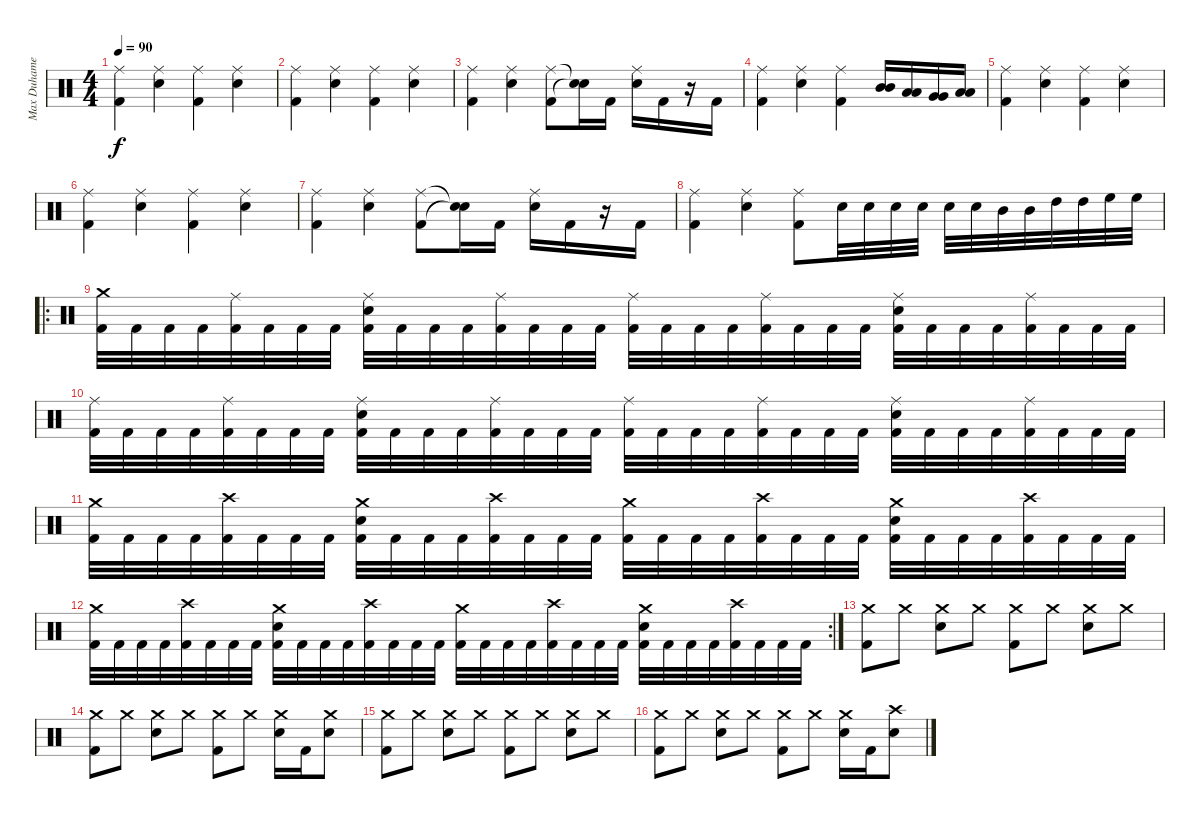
\track ("Max Duhamel (Drums)" "Max Duhame") {instrument percussion}
\staff {score}
\articulation defaults
\ts (4 4)
\tempo 90
\clef neutral
\ks c
("Ride (middle)" "Kick (hit) 2").4{dy f} ("Ride (middle)" "Snare (hit) 2").4 ("Ride (middle)" "Kick (hit) 2").4 ("Ride (middle)" "Snare (hit) 2").4 |
("Ride (middle)" "Kick (hit) 2").4 ("Ride (middle)" "Snare (hit) 2").4 ("Ride (middle)" "Kick (hit) 2").4 ("Ride (middle)" "Snare (hit) 2").4 |
("Ride (middle)" "Kick (hit) 2").4 ("Ride (middle)" "Snare (hit) 2").4 ("Ride (middle)" "Kick (hit) 2").8 ("Snare (hit)"{t} "Snare (hit)"{t}).16 "Kick (hit) 2".16 ("Ride (middle)" "Snare (hit) 2").16 "Kick (hit) 2".16 r.16 "Kick (hit) 2".16 |
("Ride (middle)" "Kick (hit) 2").4 ("Ride (middle)" "Snare (hit) 2").4 ("Ride (middle)" "Kick (hit) 2").4 ("Mid Tom (hit)" "Mid Tom (hit)").16{bd 480} ("Low Tom (hit)" "Low Tom (hit)").16{bd 480} ("Very Low Tom (hit)" "Very Low Tom (hit)").16{bd 480} ("Low Tom (hit)" "Low Tom (hit)").16{bd 480} |
("Ride (middle)" "Kick (hit) 2").4 ("Ride (middle)" "Snare (hit) 2").4 ("Ride (middle)" "Kick (hit) 2").4 ("Ride (middle)" "Snare (hit) 2").4 |
("Ride (middle)" "Kick (hit) 2").4 ("Ride (middle)" "Snare (hit) 2").4 ("Ride (middle)" "Kick (hit) 2").4 ("Ride (middle)" "Snare (hit) 2").4 |
("Ride (middle)" "Kick (hit) 2").4 ("Ride (middle)" "Snare (hit) 2").4 ("Ride (middle)" "Kick (hit) 2").8 ("Snare (hit)"{t} "Snare (hit)"{t}).16 "Kick (hit) 2".16 ("Ride (middle)" "Snare (hit) 2").16 "Kick (hit) 2".16 r.16 "Kick (hit) 2".16 |
("Ride (middle)" "Kick (hit) 2").4 ("Ride (middle)" "Snare (hit) 2").4 ("Ride (middle)" "Kick (hit) 2").8 "Snare (hit) 2".32 "Snare (hit) 2".32 "Snare (hit) 2".32 "Snare (hit) 2".32 "Snare (hit) 2".32 "Snare (hit) 2".32 "Mid Tom (hit)".32 "Mid Tom (hit)".32 "High Tom (hit)".32 "High Tom (hit)".32 "High Floor Tom (hit)".32 "High Floor Tom (hit)".32 |
\ro
("Crash medium (hit)" "Kick (hit) 2").32 "Kick (hit) 2".32 "Kick (hit) 2".32 "Kick (hit) 2".32 ("Ride (middle)" "Kick (hit) 2").32 "Kick (hit) 2".32 "Kick (hit) 2".32 "Kick (hit) 2".32 ("Ride (middle)" "Snare (hit) 2" "Kick (hit) 2").32 "Kick (hit) 2".32 "Kick (hit) 2".32 "Kick (hit) 2".32 ("Ride (middle)" "Kick (hit) 2").32 "Kick (hit) 2".32 "Kick (hit) 2".32 "Kick (hit) 2".32 ("Ride (middle)" "Kick (hit) 2").32 "Kick (hit) 2".32 "Kick (hit) 2".32 "Kick (hit) 2".32 ("Ride (middle)" "Kick (hit) 2").32 "Kick (hit) 2".32 "Kick (hit) 2".32 "Kick (hit) 2".32 ("Ride (middle)" "Snare (hit) 2" "Kick (hit) 2").32 "Kick (hit) 2".32 "Kick (hit) 2".32 "Kick (hit) 2".32 ("Ride (middle)" "Kick (hit) 2").32 "Kick (hit) 2".32 "Kick (hit) 2".32 "Kick (hit) 2".32 |
("Ride (middle)" "Kick (hit) 2").32 "Kick (hit) 2".32 "Kick (hit) 2".32 "Kick (hit) 2".32 ("Ride (middle)" "Kick (hit) 2").32 "Kick (hit) 2".32 "Kick (hit) 2".32 "Kick (hit) 2".32 ("Ride (middle)" "Snare (hit) 2" "Kick (hit) 2").32 "Kick (hit) 2".32 "Kick (hit) 2".32 "Kick (hit) 2".32 ("Ride (middle)" "Kick (hit) 2").32 "Kick (hit) 2".32 "Kick (hit) 2".32 "Kick (hit) 2".32 ("Ride (middle)" "Kick (hit) 2").32 "Kick (hit) 2".32 "Kick (hit) 2".32 "Kick (hit) 2".32 ("Ride (middle)" "Kick (hit) 2").32 "Kick (hit) 2".32 "Kick (hit) 2".32 "Kick (hit) 2".32 ("Ride (middle)" "Snare (hit) 2" "Kick (hit) 2").32 "Kick (hit) 2".32 "Kick (hit) 2".32 "Kick (hit) 2".32 ("Ride (middle)" "Kick (hit) 2").32 "Kick (hit) 2".32 "Kick (hit) 2".32 "Kick (hit) 2".32 |
("Crash medium (hit)" "Kick (hit) 2").32 "Kick (hit) 2".32 "Kick (hit) 2".32 "Kick (hit) 2".32 ("Crash high (hit)" "Kick (hit) 2").32 "Kick (hit) 2".32 "Kick (hit) 2".32 "Kick (hit) 2".32 ("Crash medium (hit)" "Snare (hit) 2" "Kick (hit) 2").32 "Kick (hit) 2".32 "Kick (hit) 2".32 "Kick (hit) 2".32 ("Crash high (hit)" "Kick (hit) 2").32 "Kick (hit) 2".32 "Kick (hit) 2".32 "Kick (hit) 2".32 ("Crash medium (hit)" "Kick (hit) 2").32 "Kick (hit) 2".32 "Kick (hit) 2".32 "Kick (hit) 2".32 ("Crash high (hit)" "Kick (hit) 2").32 "Kick (hit) 2".32 "Kick (hit) 2".32 "Kick (hit) 2".32 ("Crash medium (hit)" "Snare (hit) 2" "Kick (hit) 2").32 "Kick (hit) 2".32 "Kick (hit) 2".32 "Kick (hit) 2".32 ("Crash high (hit)" "Kick (hit) 2").32 "Kick (hit) 2".32 "Kick (hit) 2".32 "Kick (hit) 2".32 |
\rc 2
("Crash medium (hit)" "Kick (hit) 2").32 "Kick (hit) 2".32 "Kick (hit) 2".32 "Kick (hit) 2".32 ("Crash high (hit)" "Kick (hit) 2").32 "Kick (hit) 2".32 "Kick (hit) 2".32 "Kick (hit) 2".32 ("Crash medium (hit)" "Snare (hit) 2" "Kick (hit) 2").32 "Kick (hit) 2".32 "Kick (hit) 2".32 "Kick (hit) 2".32 ("Crash high (hit)" "Kick (hit) 2").32 "Kick (hit) 2".32 "Kick (hit) 2".32 "Kick (hit) 2".32 ("Crash medium (hit)" "Kick (hit) 2").32 "Kick (hit) 2".32 "Kick (hit) 2".32 "Kick (hit) 2".32 ("Crash high (hit)" "Kick (hit) 2").32 "Kick (hit) 2".32 "Kick (hit) 2".32 "Kick (hit) 2".32 ("Crash medium (hit)" "Snare (hit) 2" "Kick (hit) 2").32 "Kick (hit) 2".32 "Kick (hit) 2".32 "Kick (hit) 2".32 ("Crash high (hit)" "Kick (hit) 2").32 "Kick (hit) 2".32 "Kick (hit) 2".32 "Kick (hit) 2".32 |
("Crash medium (hit)" "Kick (hit) 2").8 "Crash medium (hit)".8 ("Crash medium (hit)" "Snare (hit) 2").8 "Crash medium (hit)".8 ("Crash medium (hit)" "Kick (hit) 2").8 "Crash medium (hit)".8 ("Crash medium (hit)" "Snare (hit) 2").8 "Crash medium (hit)".8 |
("Crash medium (hit)" "Kick (hit) 2").8 "Crash medium (hit)".8 ("Crash medium (hit)" "Snare (hit) 2").8 "Crash medium (hit)".8 ("Crash medium (hit)" "Kick (hit) 2").8 "Crash medium (hit)".8 ("Crash medium (hit)" "Snare (hit) 2").16 "Kick (hit) 2".16 ("Crash medium (hit)" "Snare (hit) 2").8 |
("Crash medium (hit)" "Kick (hit) 2").8 "Crash medium (hit)".8 ("Crash medium (hit)" "Snare (hit) 2").8 "Crash medium (hit)".8 ("Crash medium (hit)" "Kick (hit) 2").8 "Crash medium (hit)".8 ("Crash medium (hit)" "Snare (hit) 2").8 "Crash medium (hit)".8 |
("Crash medium (hit)" "Kick (hit) 2").8 "Crash medium (hit)".8 ("Crash medium (hit)" "Snare (hit) 2").8 "Crash medium (hit)".8 ("Crash medium (hit)" "Kick (hit) 2").8 "Crash medium (hit)".8 ("Crash medium (hit)" "Snare (hit) 2").16 "Kick (hit) 2".16 ("Crash high (hit)" "Snare (hit) 2").8
